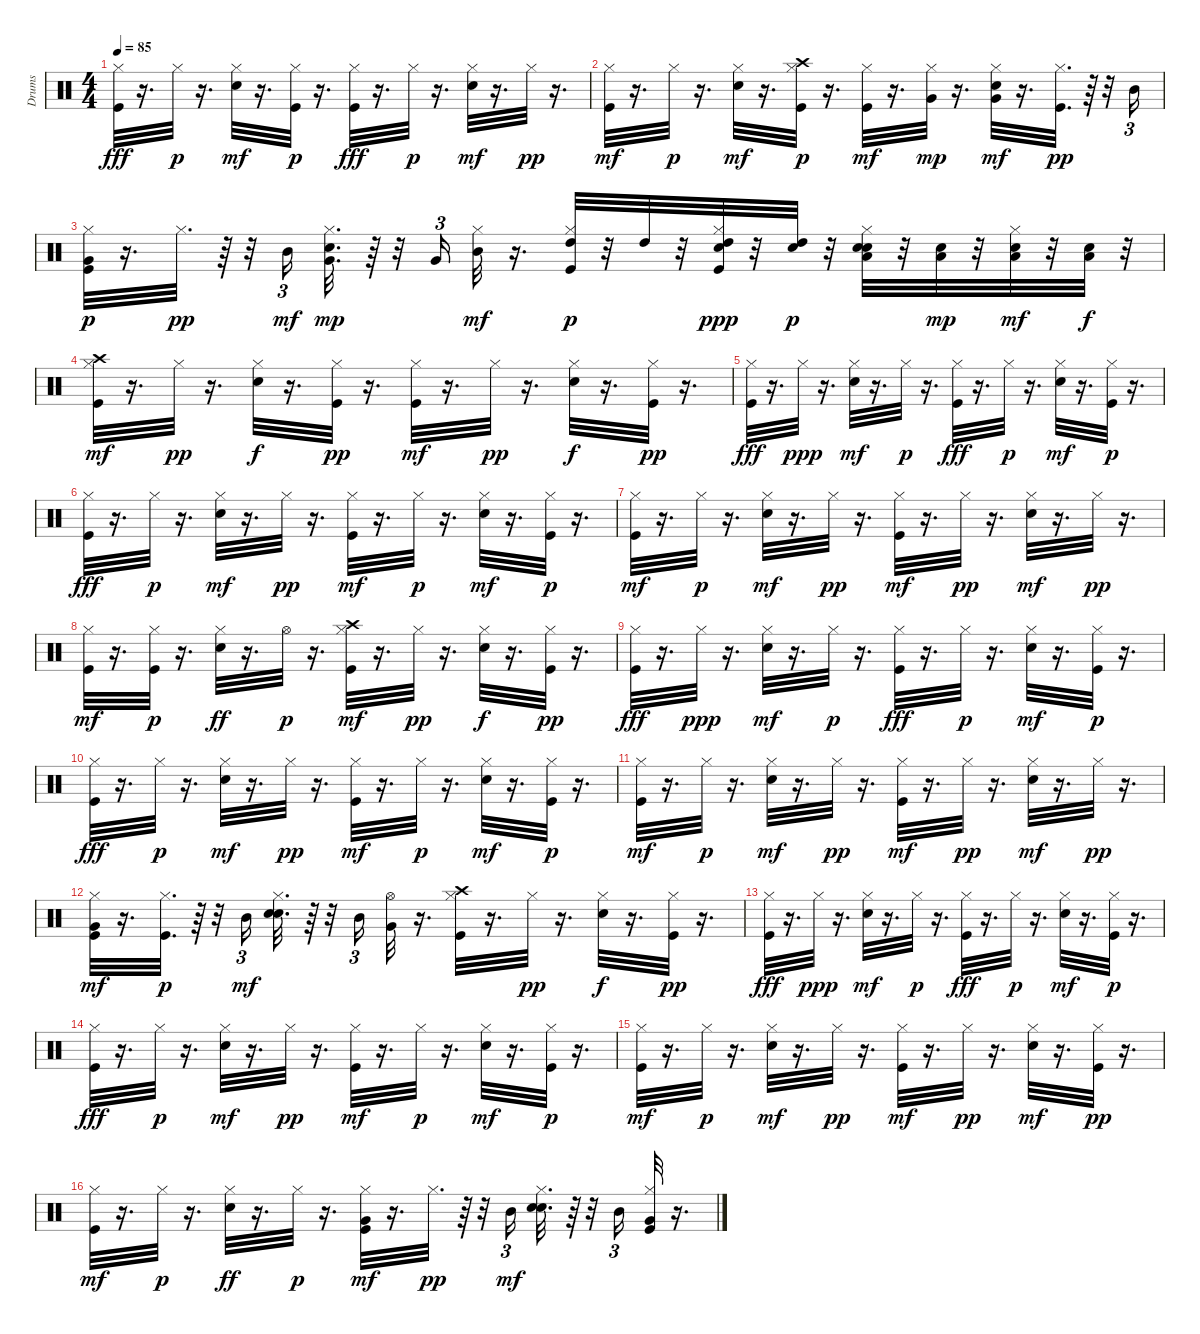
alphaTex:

\track ("Drums" "Drums") {instrument percussion}
\staff {score}
\articulation defaults
\ts (4 4)
\tempo 85
\clef neutral
\ks c
("Kick (hit)" "Hi-Hat (closed)").32{dy fff} r.16{d} "Hi-Hat (closed)".32{dy p} r.16{d} ("Electric Snare (hit)" "Hi-Hat (closed)").32{dy mf} r.16{d} ("Kick (hit)" "Hi-Hat (closed)").32{dy p} r.16{d} ("Kick (hit)" "Hi-Hat (closed)").32{dy fff} r.16{d} "Hi-Hat (closed)".32{dy p} r.16{d} ("Electric Snare (hit)" "Hi-Hat (closed)").32{dy mf} r.16{d} "Hi-Hat (closed)".32{dy pp} r.16{d} |
("Kick (hit)" "Hi-Hat (closed)").32{dy mf} r.16{d} "Hi-Hat (closed)".32{dy p} r.16{d} ("Electric Snare (hit)" "Hi-Hat (closed)").32{dy mf} r.16{d} ("Kick (hit)" "Crash high (hit)" "Hi-Hat (closed)").32{dy p} r.16{d} ("Kick (hit)" "Hi-Hat (closed)").32{dy mf} r.16{d} ("Hi-Hat (closed)" "Very Low Tom (hit)").32{dy mp} r.16{d} ("Electric Snare (hit)" "Hi-Hat (closed)" "Very Low Tom (hit)").32{dy mf} r.16{d} ("Kick (hit)" "Hi-Hat (closed)").32{d dy pp} r.64 r.32 "Mid Tom (hit)".16{tu (3 2)} |
("Kick (hit)" "Hi-Hat (closed)" "Very Low Tom (hit)").32{dy p} r.16{d} "Hi-Hat (closed)".32{d dy pp} r.64 r.32 "Mid Tom (hit)".16{tu (3 2) dy mf} ("Electric Snare (hit)" "Hi-Hat (closed)" "Very Low Tom (hit)").32{d dy mp} r.64 r.32 "Very Low Tom (hit)".16{tu (3 2)} ("Hi-Hat (closed)" "Mid Tom (hit)").32{dy mf} r.16{d} ("Kick (hit)" "Hi-Hat (closed)" "High Tom (hit)").32{dy p} r.32 "High Tom (hit)".32 r.32 ("Kick (hit)" "Hi-Hat (closed)" "High Tom (hit)" "Snare (hit) 2").32{dy ppp} r.32 ("High Tom (hit)" "Snare (hit) 2").32{dy p} r.32 ("Electric Snare (hit)" "Hi-Hat (closed)" "Low Tom (hit)" "Snare (hit) 2").32 r.32 ("Low Tom (hit)" "Snare (hit) 2").32{dy mp} r.32 ("Hi-Hat (closed)" "Low Tom (hit)" "Snare (hit) 2").32{dy mf} r.32 ("Low Tom (hit)" "Snare (hit) 2").32{dy f} r.32 |
("Kick (hit)" "Crash high (hit)" "Hi-Hat (closed)").32{dy mf} r.16{d} "Hi-Hat (closed)".32{dy pp} r.16{d} ("Electric Snare (hit)" "Hi-Hat (closed)").32{dy f} r.16{d} ("Kick (hit)" "Hi-Hat (closed)").32{dy pp} r.16{d} ("Kick (hit)" "Hi-Hat (closed)").32{dy mf} r.16{d} "Hi-Hat (closed)".32{dy pp} r.16{d} ("Electric Snare (hit)" "Hi-Hat (closed)").32{dy f} r.16{d} ("Kick (hit)" "Hi-Hat (closed)").32{dy pp} r.16{d} |
("Kick (hit)" "Hi-Hat (closed)").32{dy fff} r.16{d} "Hi-Hat (closed)".32{dy ppp} r.16{d} ("Electric Snare (hit)" "Hi-Hat (closed)").32{dy mf} r.16{d} "Hi-Hat (closed)".32{dy p} r.16{d} ("Kick (hit)" "Hi-Hat (closed)").32{dy fff} r.16{d} "Hi-Hat (closed)".32{dy p} r.16{d} ("Electric Snare (hit)" "Hi-Hat (closed)").32{dy mf} r.16{d} ("Kick (hit)" "Hi-Hat (closed)").32{dy p} r.16{d} |
("Kick (hit)" "Hi-Hat (closed)").32{dy fff} r.16{d} "Hi-Hat (closed)".32{dy p} r.16{d} ("Electric Snare (hit)" "Hi-Hat (closed)").32{dy mf} r.16{d} "Hi-Hat (closed)".32{dy pp} r.16{d} ("Kick (hit)" "Hi-Hat (closed)").32{dy mf} r.16{d} "Hi-Hat (closed)".32{dy p} r.16{d} ("Electric Snare (hit)" "Hi-Hat (closed)").32{dy mf} r.16{d} ("Kick (hit)" "Hi-Hat (closed)").32{dy p} r.16{d} |
("Kick (hit)" "Hi-Hat (closed)").32{dy mf} r.16{d} "Hi-Hat (closed)".32{dy p} r.16{d} ("Electric Snare (hit)" "Hi-Hat (closed)").32{dy mf} r.16{d} "Hi-Hat (closed)".32{dy pp} r.16{d} ("Kick (hit)" "Hi-Hat (closed)").32{dy mf} r.16{d} "Hi-Hat (closed)".32{dy pp} r.16{d} ("Electric Snare (hit)" "Hi-Hat (closed)").32{dy mf} r.16{d} "Hi-Hat (closed)".32{dy pp} r.16{d} |
("Kick (hit)" "Hi-Hat (closed)").32{dy mf} r.16{d} ("Kick (hit)" "Hi-Hat (closed)").32{dy p} r.16{d} ("Electric Snare (hit)" "Hi-Hat (closed)").32{dy ff} r.16{d} "Hi-Hat (open)".32{dy p} r.16{d} ("Kick (hit)" "Crash high (hit)" "Hi-Hat (closed)").32{dy mf} r.16{d} "Hi-Hat (closed)".32{dy pp} r.16{d} ("Electric Snare (hit)" "Hi-Hat (closed)").32{dy f} r.16{d} ("Kick (hit)" "Hi-Hat (closed)").32{dy pp} r.16{d} |
("Kick (hit)" "Hi-Hat (closed)").32{dy fff} r.16{d} "Hi-Hat (closed)".32{dy ppp} r.16{d} ("Electric Snare (hit)" "Hi-Hat (closed)").32{dy mf} r.16{d} "Hi-Hat (closed)".32{dy p} r.16{d} ("Kick (hit)" "Hi-Hat (closed)").32{dy fff} r.16{d} "Hi-Hat (closed)".32{dy p} r.16{d} ("Electric Snare (hit)" "Hi-Hat (closed)").32{dy mf} r.16{d} ("Kick (hit)" "Hi-Hat (closed)").32{dy p} r.16{d} |
("Kick (hit)" "Hi-Hat (closed)").32{dy fff} r.16{d} "Hi-Hat (closed)".32{dy p} r.16{d} ("Electric Snare (hit)" "Hi-Hat (closed)").32{dy mf} r.16{d} "Hi-Hat (closed)".32{dy pp} r.16{d} ("Kick (hit)" "Hi-Hat (closed)").32{dy mf} r.16{d} "Hi-Hat (closed)".32{dy p} r.16{d} ("Electric Snare (hit)" "Hi-Hat (closed)").32{dy mf} r.16{d} ("Kick (hit)" "Hi-Hat (closed)").32{dy p} r.16{d} |
("Kick (hit)" "Hi-Hat (closed)").32{dy mf} r.16{d} "Hi-Hat (closed)".32{dy p} r.16{d} ("Electric Snare (hit)" "Hi-Hat (closed)").32{dy mf} r.16{d} "Hi-Hat (closed)".32{dy pp} r.16{d} ("Kick (hit)" "Hi-Hat (closed)").32{dy mf} r.16{d} "Hi-Hat (closed)".32{dy pp} r.16{d} ("Electric Snare (hit)" "Hi-Hat (closed)").32{dy mf} r.16{d} "Hi-Hat (closed)".32{dy pp} r.16{d} |
("Kick (hit)" "Hi-Hat (closed)" "Very Low Tom (hit)").32{dy mf} r.16{d} ("Kick (hit)" "Hi-Hat (closed)").32{d dy p} r.64 r.32 "Mid Tom (hit)".16{tu (3 2) dy mf} ("Electric Snare (hit)" "Hi-Hat (closed)" "Snare (hit) 2").32{d} r.64 r.32 "Mid Tom (hit)".16{tu (3 2)} ("Hi-Hat (open)" "Very Low Tom (hit)").32 r.16{d} ("Kick (hit)" "Crash high (hit)" "Hi-Hat (closed)").32 r.16{d} "Hi-Hat (closed)".32{dy pp} r.16{d} ("Electric Snare (hit)" "Hi-Hat (closed)").32{dy f} r.16{d} ("Kick (hit)" "Hi-Hat (closed)").32{dy pp} r.16{d} |
("Kick (hit)" "Hi-Hat (closed)").32{dy fff} r.16{d} "Hi-Hat (closed)".32{dy ppp} r.16{d} ("Electric Snare (hit)" "Hi-Hat (closed)").32{dy mf} r.16{d} "Hi-Hat (closed)".32{dy p} r.16{d} ("Kick (hit)" "Hi-Hat (closed)").32{dy fff} r.16{d} "Hi-Hat (closed)".32{dy p} r.16{d} ("Electric Snare (hit)" "Hi-Hat (closed)").32{dy mf} r.16{d} ("Kick (hit)" "Hi-Hat (closed)").32{dy p} r.16{d} |
("Kick (hit)" "Hi-Hat (closed)").32{dy fff} r.16{d} "Hi-Hat (closed)".32{dy p} r.16{d} ("Electric Snare (hit)" "Hi-Hat (closed)").32{dy mf} r.16{d} "Hi-Hat (closed)".32{dy pp} r.16{d} ("Kick (hit)" "Hi-Hat (closed)").32{dy mf} r.16{d} "Hi-Hat (closed)".32{dy p} r.16{d} ("Electric Snare (hit)" "Hi-Hat (closed)").32{dy mf} r.16{d} ("Kick (hit)" "Hi-Hat (closed)").32{dy p} r.16{d} |
("Kick (hit)" "Hi-Hat (closed)").32{dy mf} r.16{d} "Hi-Hat (closed)".32{dy p} r.16{d} ("Electric Snare (hit)" "Hi-Hat (closed)").32{dy mf} r.16{d} "Hi-Hat (closed)".32{dy pp} r.16{d} ("Kick (hit)" "Hi-Hat (closed)").32{dy mf} r.16{d} "Hi-Hat (closed)".32{dy pp} r.16{d} ("Electric Snare (hit)" "Hi-Hat (closed)").32{dy mf} r.16{d} ("Kick (hit)" "Hi-Hat (closed)").32{dy pp} r.16{d} |
("Kick (hit)" "Hi-Hat (closed)").32{dy mf} r.16{d} "Hi-Hat (closed)".32{dy p} r.16{d} ("Electric Snare (hit)" "Hi-Hat (closed)").32{dy ff} r.16{d} "Hi-Hat (closed)".32{dy p} r.16{d} ("Kick (hit)" "Hi-Hat (closed)" "Very Low Tom (hit)").32{dy mf} r.16{d} "Hi-Hat (closed)".32{d dy pp} r.64 r.32 "Mid Tom (hit)".16{tu (3 2) dy mf} ("Electric Snare (hit)" "Hi-Hat (closed)" "Snare (hit) 2").32{d} r.64 r.32 "Mid Tom (hit)".16{tu (3 2)} ("Kick (hit)" "Hi-Hat (closed)" "Very Low Tom (hit)").32 r.16{d}
